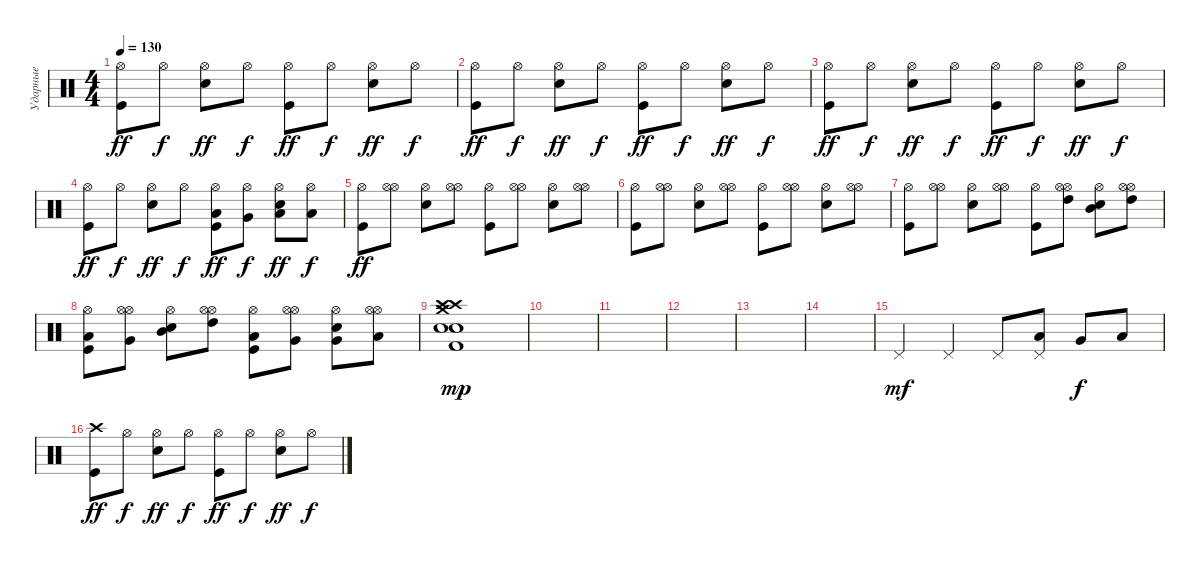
\track ("Ударные" "Ударные") {instrument percussion}
\staff {score}
\articulation defaults
\ts (4 4)
\tempo 130
\clef neutral
\ks c
("Kick (hit)" "Hi-Hat (open)").8{dy ff} "Hi-Hat (open)".8{dy f} ("Electric Snare (hit)" "Hi-Hat (open)").8{dy ff} "Hi-Hat (open)".8{dy f} ("Kick (hit)" "Hi-Hat (open)").8{dy ff} "Hi-Hat (open)".8{dy f} ("Electric Snare (hit)" "Hi-Hat (open)").8{dy ff} "Hi-Hat (open)".8{dy f} |
("Kick (hit)" "Hi-Hat (open)").8{dy ff} "Hi-Hat (open)".8{dy f} ("Electric Snare (hit)" "Hi-Hat (open)").8{dy ff} "Hi-Hat (open)".8{dy f} ("Kick (hit)" "Hi-Hat (open)").8{dy ff} "Hi-Hat (open)".8{dy f} ("Electric Snare (hit)" "Hi-Hat (open)").8{dy ff} "Hi-Hat (open)".8{dy f} |
("Kick (hit)" "Hi-Hat (open)").8{dy ff} "Hi-Hat (open)".8{dy f} ("Electric Snare (hit)" "Hi-Hat (open)").8{dy ff} "Hi-Hat (open)".8{dy f} ("Kick (hit)" "Hi-Hat (open)").8{dy ff} "Hi-Hat (open)".8{dy f} ("Electric Snare (hit)" "Hi-Hat (open)").8{dy ff} "Hi-Hat (open)".8{dy f} |
("Kick (hit)" "Hi-Hat (open)").8{dy ff} "Hi-Hat (open)".8{dy f} ("Electric Snare (hit)" "Hi-Hat (open)").8{dy ff} "Hi-Hat (open)".8{dy f} ("Kick (hit)" "Hi-Hat (open)" "Low Tom (hit)").8{dy ff} ("Hi-Hat (open)" "Very Low Tom (hit)").8{dy f} ("Electric Snare (hit)" "Hi-Hat (open)" "Low Tom (hit)").8{dy ff} ("Hi-Hat (open)" "Low Floor Tom (hit)").8{dy f} |
("Kick (hit)" "Hi-Hat (open)").8{dy ff} ("Hi-Hat (open)" "Hi-Hat (open)").8 ("Electric Snare (hit)" "Hi-Hat (open)").8 ("Hi-Hat (open)" "Hi-Hat (open)").8 ("Kick (hit)" "Hi-Hat (open)").8 ("Hi-Hat (open)" "Hi-Hat (open)").8 ("Electric Snare (hit)" "Hi-Hat (open)").8 ("Hi-Hat (open)" "Hi-Hat (open)").8 |
("Kick (hit)" "Hi-Hat (open)").8 ("Hi-Hat (open)" "Hi-Hat (open)").8 ("Electric Snare (hit)" "Hi-Hat (open)").8 ("Hi-Hat (open)" "Hi-Hat (open)").8 ("Kick (hit)" "Hi-Hat (open)").8 ("Hi-Hat (open)" "Hi-Hat (open)").8 ("Electric Snare (hit)" "Hi-Hat (open)").8 ("Hi-Hat (open)" "Hi-Hat (open)").8 |
("Kick (hit)" "Hi-Hat (open)").8 ("Hi-Hat (open)" "Hi-Hat (open)").8 ("Electric Snare (hit)" "Hi-Hat (open)").8 ("Hi-Hat (open)" "Hi-Hat (open)").8 ("Kick (hit)" "Hi-Hat (open)").8 ("Hi-Hat (open)" "Hi-Hat (open)" "High Tom (hit)").8 ("Electric Snare (hit)" "Hi-Hat (open)" "Mid Tom (hit)").8 ("Hi-Hat (open)" "Hi-Hat (open)" "High Tom (hit)").8 |
("Kick (hit)" "Hi-Hat (open)" "Low Tom (hit)").8 ("Hi-Hat (open)" "Hi-Hat (open)" "Very Low Tom (hit)").8 ("Electric Snare (hit)" "Hi-Hat (open)" "Mid Tom (hit)").8 ("Hi-Hat (open)" "Hi-Hat (open)" "High Tom (hit)").8 ("Kick (hit)" "Hi-Hat (open)" "Low Tom (hit)").8 ("Hi-Hat (open)" "Hi-Hat (open)" "Very Low Tom (hit)").8 ("Electric Snare (hit)" "Hi-Hat (open)" "Very Low Tom (hit)").8 ("Hi-Hat (open)" "Hi-Hat (open)" "Low Floor Tom (hit)").8 |
("Crash high (hit)" "Kick (hit) 2" "Snare (hit) 2" "Crash high (hit)" "Electric Snare (hit)" "Crash medium (hit)").1{dy mp} |
|
|
|
|
|
"Pedal Hi-Hat (hit)".4{dy mf} "Pedal Hi-Hat (hit)".4 "Pedal Hi-Hat (hit)".8 ("Pedal Hi-Hat (hit)" "Low Floor Tom (hit)").8 "Very Low Tom (hit)".8{dy f} "Low Tom (hit)".8 |
("Kick (hit)" "Crash high (hit)").8{dy ff} "Hi-Hat (open)".8{dy f} ("Electric Snare (hit)" "Hi-Hat (open)").8{dy ff} "Hi-Hat (open)".8{dy f} ("Kick (hit)" "Hi-Hat (open)").8{dy ff} "Hi-Hat (open)".8{dy f} ("Electric Snare (hit)" "Hi-Hat (open)").8{dy ff} "Hi-Hat (open)".8{dy f}
